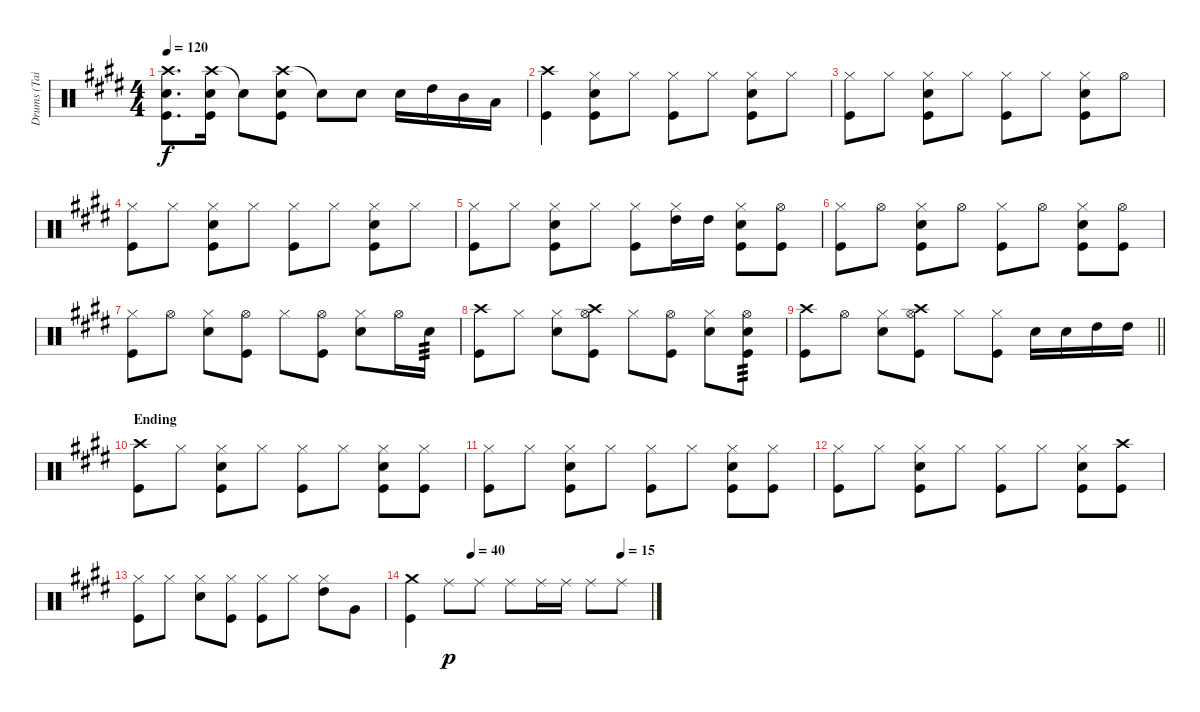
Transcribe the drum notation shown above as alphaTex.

\track ("Drums (Tainaka Ritsu)" "Drums (Tai") {instrument percussion}
\staff {score}
\articulation defaults
\ts (4 4)
\tempo 120
\clef neutral
\ks e
("Crash high (hit)" "Snare (hit) 2" "Kick (hit)").8{d dy f} ("Crash high (hit)" "Snare (hit) 2" "Kick (hit)").16 "Snare (hit)"{t}.8 ("Crash high (hit)" "Snare (hit) 2" "Kick (hit)").8 "Snare (hit)"{t}.8 "Snare (hit) 2".8 "Snare (hit) 2".16 "High Tom (hit)".16 "Mid Tom (hit)".16 "Low Tom (hit)".16 |
("Crash high (hit)" "Kick (hit)").4 ("Hi-Hat (closed)" "Snare (hit) 2" "Kick (hit)").8 "Hi-Hat (closed)".8 ("Hi-Hat (closed)" "Kick (hit)").8 "Hi-Hat (closed)".8 ("Hi-Hat (closed)" "Snare (hit) 2" "Kick (hit)").8 "Hi-Hat (closed)".8 |
("Hi-Hat (closed)" "Kick (hit)").8 "Hi-Hat (closed)".8 ("Hi-Hat (closed)" "Snare (hit) 2" "Kick (hit)").8 "Hi-Hat (closed)".8 ("Hi-Hat (closed)" "Kick (hit)").8 "Hi-Hat (closed)".8 ("Hi-Hat (closed)" "Snare (hit) 2" "Kick (hit)").8 "Hi-Hat (open)".8 |
("Hi-Hat (closed)" "Kick (hit)").8 "Hi-Hat (closed)".8 ("Hi-Hat (closed)" "Snare (hit) 2" "Kick (hit)").8 "Hi-Hat (closed)".8 ("Hi-Hat (closed)" "Kick (hit)").8 "Hi-Hat (closed)".8 ("Hi-Hat (closed)" "Snare (hit) 2" "Kick (hit)").8 "Hi-Hat (closed)".8 |
("Hi-Hat (closed)" "Kick (hit)").8 "Hi-Hat (closed)".8 ("Hi-Hat (closed)" "Snare (hit) 2" "Kick (hit)").8 "Hi-Hat (closed)".8 ("Hi-Hat (closed)" "Kick (hit)").8 ("Hi-Hat (closed)" "High Tom (hit)").16 "High Tom (hit)".16 ("Hi-Hat (closed)" "Snare (hit) 2" "Kick (hit)").8 ("Hi-Hat (open)" "Kick (hit)").8 |
("Hi-Hat (closed)" "Kick (hit)").8 "Hi-Hat (open)".8 ("Hi-Hat (closed)" "Snare (hit) 2" "Kick (hit)").8 "Hi-Hat (open)".8 ("Hi-Hat (closed)" "Kick (hit)").8 "Hi-Hat (open)".8 ("Hi-Hat (closed)" "Snare (hit) 2" "Kick (hit)").8 ("Hi-Hat (open)" "Kick (hit)").8 |
("Hi-Hat (closed)" "Kick (hit)").8 "Hi-Hat (open)".8 ("Hi-Hat (closed)" "Snare (hit) 2").8 ("Hi-Hat (open)" "Kick (hit)").8 "Hi-Hat (closed)".8 ("Hi-Hat (open)" "Kick (hit)").8 ("Hi-Hat (closed)" "Snare (hit) 2").8 "Hi-Hat (open)".16 "Snare (hit) 2".16{tp 3} |
("Crash high (hit)" "Kick (hit)").8 "Hi-Hat (closed)".8 ("Hi-Hat (closed)" "Snare (hit) 2").8 ("Hi-Hat (open)" "Crash high (hit)" "Kick (hit)").8 "Hi-Hat (closed)".8 ("Hi-Hat (open)" "Kick (hit)").8 ("Hi-Hat (closed)" "Snare (hit) 2").8 ("Hi-Hat (open)" "Snare (hit) 2" "Kick (hit)").8{tp 3} |
\barLineRight lightlight
("Crash high (hit)" "Kick (hit)").8 "Hi-Hat (open)".8 ("Hi-Hat (closed)" "Snare (hit) 2").8 ("Hi-Hat (open)" "Crash high (hit)" "Kick (hit)").8 "Hi-Hat (closed)".8 ("Hi-Hat (closed)" "Kick (hit)").8 "Snare (hit) 2".16 "Snare (hit) 2".16 "High Tom (hit)".16 "High Tom (hit)".16 |
\section ("" "Ending")
("Crash high (hit)" "Kick (hit)").8 "Hi-Hat (closed)".8 ("Hi-Hat (closed)" "Snare (hit) 2" "Kick (hit)").8 "Hi-Hat (closed)".8 ("Hi-Hat (closed)" "Kick (hit)").8 "Hi-Hat (closed)".8 ("Hi-Hat (closed)" "Snare (hit) 2" "Kick (hit)").8 ("Hi-Hat (closed)" "Kick (hit)").8 |
("Hi-Hat (closed)" "Kick (hit)").8 "Hi-Hat (closed)".8 ("Hi-Hat (closed)" "Snare (hit) 2" "Kick (hit)").8 "Hi-Hat (closed)".8 ("Hi-Hat (closed)" "Kick (hit)").8 "Hi-Hat (closed)".8 ("Hi-Hat (closed)" "Snare (hit) 2" "Kick (hit)").8 ("Hi-Hat (closed)" "Kick (hit)").8 |
("Hi-Hat (closed)" "Kick (hit)").8 "Hi-Hat (closed)".8 ("Hi-Hat (closed)" "Snare (hit) 2" "Kick (hit)").8 "Hi-Hat (closed)".8 ("Hi-Hat (closed)" "Kick (hit)").8 "Hi-Hat (closed)".8 ("Hi-Hat (closed)" "Snare (hit) 2" "Kick (hit)").8 ("Crash high (hit)" "Kick (hit)").8 |
("Hi-Hat (closed)" "Kick (hit)").8 "Hi-Hat (closed)".8 ("Hi-Hat (closed)" "Snare (hit) 2").8 ("Hi-Hat (closed)" "Kick (hit)").8 ("Hi-Hat (closed)" "Kick (hit)").8 "Hi-Hat (closed)".8 ("Hi-Hat (closed)" "High Tom (hit)").8 "Very Low Tom (hit)".8 |
\tempo (40 0.25)
\tempo (15 0.875)
("Crash medium (hit)" "Kick (hit)").4 "Ride (middle)".8{dy p} "Ride (middle)".8 "Ride (middle)".8 "Ride (middle)".16 "Ride (middle)".16 "Ride (middle)".8 "Ride (middle)".8
